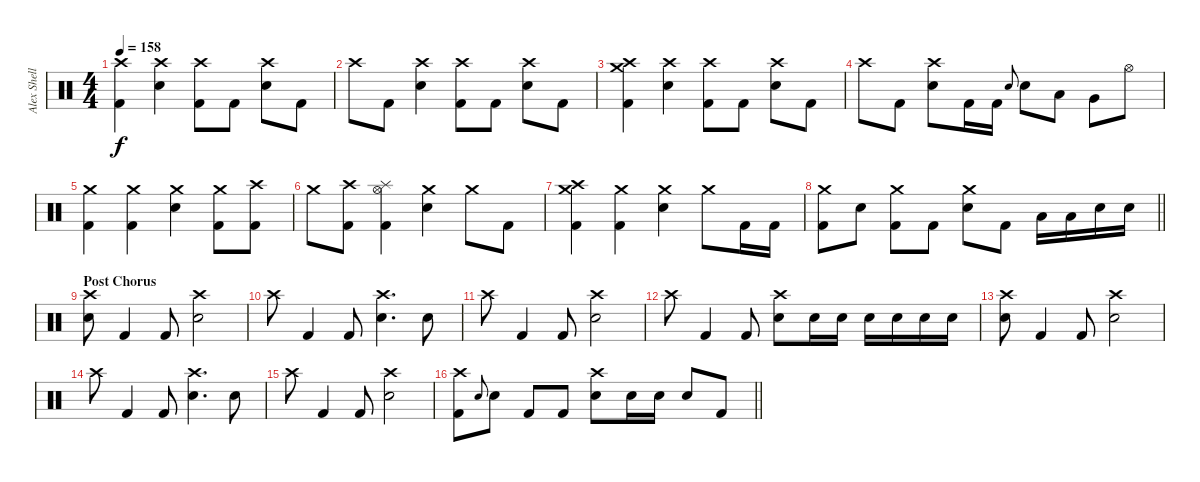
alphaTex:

\track ("Alex Shellnut" "Alex Shell") {instrument percussion}
\staff {score}
\articulation defaults
\ts (4 4)
\tempo 158
\clef neutral
\ks c
("Crash high (hit)" "Kick (hit) 2").4{dy f} ("Crash high (hit)" "Electric Snare (hit)").4 ("Crash high (hit)" "Kick (hit) 2").8 "Kick (hit) 2".8 ("Crash high (hit)" "Electric Snare (hit)").8 "Kick (hit) 2".8 |
"Crash high (hit)".8 "Kick (hit) 2".8 ("Crash high (hit)" "Electric Snare (hit)").4 ("Crash high (hit)" "Kick (hit) 2").8 "Kick (hit) 2".8 ("Crash high (hit)" "Electric Snare (hit)").8 "Kick (hit) 2".8 |
("Crash medium (hit)" "Crash high (hit)" "Kick (hit) 2").4 ("Crash high (hit)" "Electric Snare (hit)").4 ("Crash high (hit)" "Kick (hit) 2").8 "Kick (hit) 2".8 ("Crash high (hit)" "Electric Snare (hit)").8 "Kick (hit) 2".8 |
"Crash high (hit)".8 "Kick (hit) 2".8 ("Crash high (hit)" "Electric Snare (hit)").8 "Kick (hit) 2".16 "Kick (hit) 2".16 "Electric Snare (hit)".8{gr onbeat} "Electric Snare (hit)".8 "Low Tom (hit)".8 "Very Low Tom (hit)".8 "Hi-Hat (open)".8 |
("Crash medium (hit)" "Kick (hit) 2").4 ("Crash medium (hit)" "Kick (hit) 2").4 ("Crash medium (hit)" "Electric Snare (hit)").4 ("Crash medium (hit)" "Kick (hit) 2").8 ("Crash high (hit)" "Kick (hit) 2").8 |
"Crash medium (hit)".8 ("Crash high (hit)" "Kick (hit) 2").8 ("Splash (hit)" "Hi-Hat (open)" "Kick (hit) 2").4 ("Crash medium (hit)" "Electric Snare (hit)").4 "Crash medium (hit)".8 "Kick (hit) 2".8 |
("Crash medium (hit)" "Crash high (hit)" "Kick (hit) 2").4 ("Crash medium (hit)" "Kick (hit) 2").4 ("Crash medium (hit)" "Electric Snare (hit)").4 "Crash medium (hit)".8 "Kick (hit) 2".16 "Kick (hit) 2".16 |
\barLineRight lightlight
("Crash medium (hit)" "Kick (hit) 2").8 "Electric Snare (hit)".8 ("Crash medium (hit)" "Kick (hit) 2").8 "Kick (hit) 2".8 ("Crash medium (hit)" "Electric Snare (hit)").8 "Kick (hit) 2".8 "Low Tom (hit)".16 "Low Tom (hit)".16 "Electric Snare (hit)".16 "Electric Snare (hit)".16 |
\section ("" "Post Chorus")
("Crash high (hit)" "Electric Snare (hit)").8 "Kick (hit) 2".4 "Kick (hit) 2".8 ("Crash high (hit)" "Electric Snare (hit)").2 |
"Crash high (hit)".8 "Kick (hit) 2".4 "Kick (hit) 2".8 ("Crash high (hit)" "Electric Snare (hit)").4{d} "Electric Snare (hit)".8 |
"Crash high (hit)".8 "Kick (hit) 2".4 "Kick (hit) 2".8 ("Crash high (hit)" "Electric Snare (hit)").2 |
"Crash high (hit)".8 "Kick (hit) 2".4 "Kick (hit) 2".8 ("Crash high (hit)" "Electric Snare (hit)").8 "Snare (hit) 2".16 "Snare (hit) 2".16 "Snare (hit) 2".16 "Snare (hit) 2".16 "Snare (hit) 2".16 "Snare (hit) 2".16 |
("Crash high (hit)" "Electric Snare (hit)").8 "Kick (hit) 2".4 "Kick (hit) 2".8 ("Crash high (hit)" "Electric Snare (hit)").2 |
"Crash high (hit)".8 "Kick (hit) 2".4 "Kick (hit) 2".8 ("Crash high (hit)" "Electric Snare (hit)").4{d} "Electric Snare (hit)".8 |
"Crash high (hit)".8 "Kick (hit) 2".4 "Kick (hit) 2".8 ("Crash high (hit)" "Electric Snare (hit)").2 |
\barLineRight lightlight
("Crash high (hit)" "Kick (hit) 2").8 "Electric Snare (hit)".8{gr onbeat} "Electric Snare (hit)".8 "Kick (hit) 2".8 "Kick (hit) 2".8 ("Crash high (hit)" "Electric Snare (hit)").8 "Electric Snare (hit)".16 "Electric Snare (hit)".16 "Electric Snare (hit)".8 "Kick (hit) 2".8
